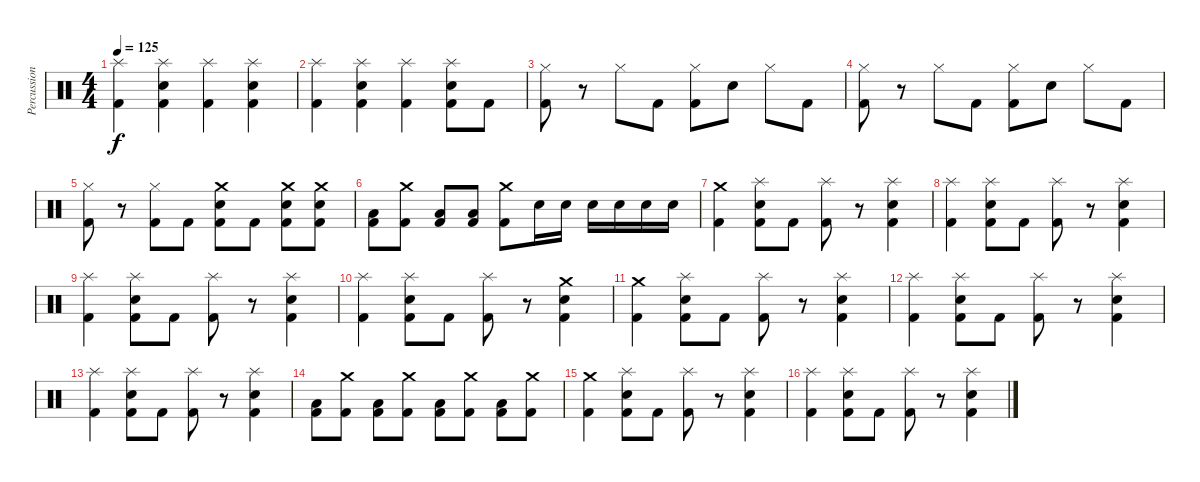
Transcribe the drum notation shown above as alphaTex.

\track ("Percussion" "Percussion") {instrument percussion}
\staff {score}
\articulation defaults
\ts (4 4)
\tempo 125
\clef neutral
\ks c
("Splash (hit)" "Kick (hit) 2").4{dy f} ("Splash (hit)" "Snare (hit) 2" "Kick (hit) 2").4 ("Splash (hit)" "Kick (hit) 2").4 ("Splash (hit)" "Snare (hit) 2" "Kick (hit) 2").4 |
("Splash (hit)" "Kick (hit) 2").4 ("Splash (hit)" "Snare (hit) 2" "Kick (hit) 2").4 ("Splash (hit)" "Kick (hit) 2").4 ("Splash (hit)" "Snare (hit) 2" "Kick (hit) 2").8 "Kick (hit) 2".8 |
("Hi-Hat (closed)" "Kick (hit) 2").8 r.8 "Hi-Hat (closed)".8 "Kick (hit) 2".8 ("Hi-Hat (closed)" "Kick (hit) 2").8 "Snare (hit) 2".8 "Hi-Hat (closed)".8 "Kick (hit) 2".8 |
("Hi-Hat (closed)" "Kick (hit) 2").8 r.8 "Hi-Hat (closed)".8 "Kick (hit) 2".8 ("Hi-Hat (closed)" "Kick (hit) 2").8 "Snare (hit) 2".8 "Hi-Hat (closed)".8 "Kick (hit) 2".8 |
("Hi-Hat (closed)" "Kick (hit) 2").8 r.8 ("Hi-Hat (closed)" "Kick (hit) 2").8 "Kick (hit) 2".8 ("Crash medium (hit)" "Snare (hit) 2" "Kick (hit) 2").8 "Kick (hit) 2".8 ("Crash medium (hit)" "Snare (hit) 2" "Kick (hit) 2").8 ("Crash medium (hit)" "Snare (hit) 2" "Kick (hit) 2").8 |
("Low Floor Tom (hit)" "Kick (hit) 2").8 ("Crash medium (hit)" "Kick (hit) 2").8 ("Low Floor Tom (hit)" "Kick (hit) 2").8 ("Low Floor Tom (hit)" "Kick (hit) 2").8 ("Crash medium (hit)" "Kick (hit) 2").8 "Snare (hit) 2".16 "Snare (hit) 2".16 "Snare (hit) 2".16 "Snare (hit) 2".16 "Snare (hit) 2".16 "Snare (hit) 2".16 |
("Crash medium (hit)" "Kick (hit) 2").4 ("Splash (hit)" "Snare (hit) 2" "Kick (hit) 2").8 "Kick (hit) 2".8 ("Splash (hit)" "Kick (hit) 2").8 r.8 ("Splash (hit)" "Snare (hit) 2" "Kick (hit) 2").4 |
("Splash (hit)" "Kick (hit) 2").4 ("Splash (hit)" "Snare (hit) 2" "Kick (hit) 2").8 "Kick (hit) 2".8 ("Splash (hit)" "Kick (hit) 2").8 r.8 ("Splash (hit)" "Snare (hit) 2" "Kick (hit) 2").4 |
("Splash (hit)" "Kick (hit) 2").4 ("Splash (hit)" "Snare (hit) 2" "Kick (hit) 2").8 "Kick (hit) 2".8 ("Splash (hit)" "Kick (hit) 2").8 r.8 ("Splash (hit)" "Snare (hit) 2" "Kick (hit) 2").4 |
("Splash (hit)" "Kick (hit) 2").4 ("Splash (hit)" "Snare (hit) 2" "Kick (hit) 2").8 "Kick (hit) 2".8 ("Splash (hit)" "Kick (hit) 2").8 r.8 ("Crash medium (hit)" "Snare (hit) 2" "Kick (hit) 2").4 |
("Crash medium (hit)" "Kick (hit) 2").4 ("Splash (hit)" "Snare (hit) 2" "Kick (hit) 2").8 "Kick (hit) 2".8 ("Splash (hit)" "Kick (hit) 2").8 r.8 ("Splash (hit)" "Snare (hit) 2" "Kick (hit) 2").4 |
("Splash (hit)" "Kick (hit) 2").4 ("Splash (hit)" "Snare (hit) 2" "Kick (hit) 2").8 "Kick (hit) 2".8 ("Splash (hit)" "Kick (hit) 2").8 r.8 ("Splash (hit)" "Snare (hit) 2" "Kick (hit) 2").4 |
("Splash (hit)" "Kick (hit) 2").4 ("Splash (hit)" "Snare (hit) 2" "Kick (hit) 2").8 "Kick (hit) 2".8 ("Splash (hit)" "Kick (hit) 2").8 r.8 ("Splash (hit)" "Snare (hit) 2" "Kick (hit) 2").4 |
("Low Floor Tom (hit)" "Kick (hit) 2").8 ("Crash medium (hit)" "Kick (hit) 2").8 ("Low Floor Tom (hit)" "Kick (hit) 2").8 ("Crash medium (hit)" "Kick (hit) 2").8 ("Low Floor Tom (hit)" "Kick (hit) 2").8 ("Crash medium (hit)" "Kick (hit) 2").8 ("Low Floor Tom (hit)" "Kick (hit) 2").8 ("Crash medium (hit)" "Kick (hit) 2").8 |
("Crash medium (hit)" "Kick (hit) 2").4 ("Splash (hit)" "Snare (hit) 2" "Kick (hit) 2").8 "Kick (hit) 2".8 ("Splash (hit)" "Kick (hit) 2").8 r.8 ("Splash (hit)" "Snare (hit) 2" "Kick (hit) 2").4 |
("Splash (hit)" "Kick (hit) 2").4 ("Splash (hit)" "Snare (hit) 2" "Kick (hit) 2").8 "Kick (hit) 2".8 ("Splash (hit)" "Kick (hit) 2").8 r.8 ("Splash (hit)" "Snare (hit) 2" "Kick (hit) 2").4
